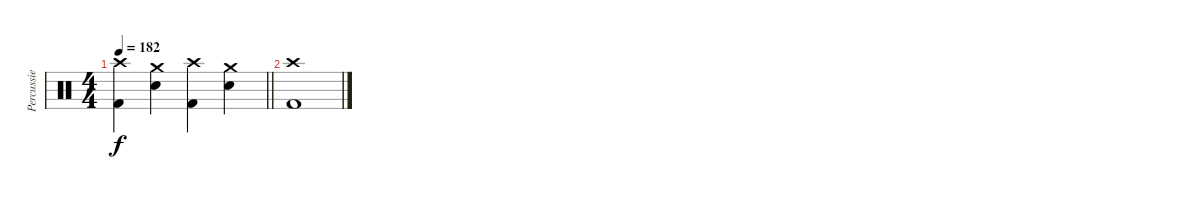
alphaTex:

\track ("Percussie" "Percussie") {instrument percussion}
\staff {score}
\articulation defaults
\ts (4 4)
\tempo 182
\clef neutral
\barLineRight lightlight
\ks c
("Crash high (hit)" "Kick (hit) 2").4{dy f} ("Crash medium (hit)" "Snare (hit) 2").4 ("Crash high (hit)" "Kick (hit) 2").4 ("Crash medium (hit)" "Snare (hit) 2").4 |
("Crash high (hit)" "Kick (hit) 2").1
